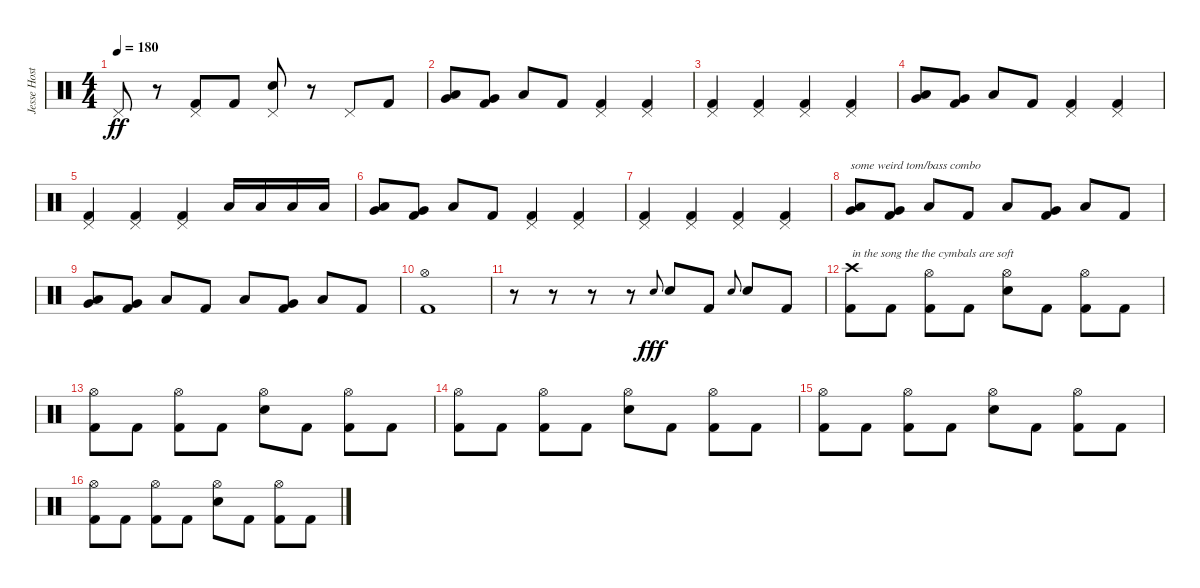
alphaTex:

\track ("Jesse Hostetler" "Jesse Host") {instrument percussion}
\staff {score}
\articulation defaults
\ts (4 4)
\tempo 180
\clef neutral
\ks c "Pedal Hi-Hat (hit)".8{dy ff}
r.8 ("Pedal Hi-Hat (hit)" "Kick (hit) 2").8 "Kick (hit) 2".8 ("Pedal Hi-Hat (hit)" "Electric Snare (hit)").8 r.8 "Pedal Hi-Hat (hit)".8 "Kick (hit) 2".8 |
("Very Low Tom (hit)" "Low Floor Tom (hit)").8 ("Very Low Tom (hit)" "Kick (hit) 2").8 "Low Floor Tom (hit)".8 "Kick (hit) 2".8 ("Pedal Hi-Hat (hit)" "Kick (hit) 2").4 ("Pedal Hi-Hat (hit)" "Kick (hit) 2").4 |
("Pedal Hi-Hat (hit)" "Kick (hit) 2").4 ("Pedal Hi-Hat (hit)" "Kick (hit) 2").4 ("Pedal Hi-Hat (hit)" "Kick (hit) 2").4 ("Pedal Hi-Hat (hit)" "Kick (hit) 2").4 |
("Very Low Tom (hit)" "Low Floor Tom (hit)").8 ("Very Low Tom (hit)" "Kick (hit) 2").8 "Low Floor Tom (hit)".8 "Kick (hit) 2".8 ("Pedal Hi-Hat (hit)" "Kick (hit) 2").4 ("Pedal Hi-Hat (hit)" "Kick (hit) 2").4 |
("Pedal Hi-Hat (hit)" "Kick (hit) 2").4 ("Pedal Hi-Hat (hit)" "Kick (hit) 2").4 ("Pedal Hi-Hat (hit)" "Kick (hit) 2").4 "Low Floor Tom (hit)".16 "Low Floor Tom (hit)".16 "Low Floor Tom (hit)".16 "Low Floor Tom (hit)".16 |
("Very Low Tom (hit)" "Low Floor Tom (hit)").8 ("Very Low Tom (hit)" "Kick (hit) 2").8 "Low Floor Tom (hit)".8 "Kick (hit) 2".8 ("Pedal Hi-Hat (hit)" "Kick (hit) 2").4 ("Pedal Hi-Hat (hit)" "Kick (hit) 2").4 |
("Pedal Hi-Hat (hit)" "Kick (hit) 2").4 ("Pedal Hi-Hat (hit)" "Kick (hit) 2").4 ("Pedal Hi-Hat (hit)" "Kick (hit) 2").4 ("Pedal Hi-Hat (hit)" "Kick (hit) 2").4 |
("Very Low Tom (hit)" "Low Floor Tom (hit)").8{txt "some weird tom/bass combo"} ("Very Low Tom (hit)" "Kick (hit) 2").8 "Low Floor Tom (hit)".8 "Kick (hit) 2".8 "Low Floor Tom (hit)".8 ("Very Low Tom (hit)" "Kick (hit) 2").8 "Low Floor Tom (hit)".8 "Kick (hit) 2".8 |
("Very Low Tom (hit)" "Low Floor Tom (hit)").8 ("Very Low Tom (hit)" "Kick (hit) 2").8 "Low Floor Tom (hit)".8 "Kick (hit) 2".8 "Low Floor Tom (hit)".8 ("Very Low Tom (hit)" "Kick (hit) 2").8 "Low Floor Tom (hit)".8 "Kick (hit) 2".8 |
("Hi-Hat (open)" "Kick (hit) 2").1 |
r.8 r.8 r.8 r.8 "Electric Snare (hit)".8{gr onbeat dy fff} "Electric Snare (hit)".8 "Kick (hit) 2".8 "Electric Snare (hit)".8{gr onbeat} "Electric Snare (hit)".8 "Kick (hit) 2".8 |
("Crash high (hit)" "Kick (hit) 2").8{txt "in the song the the cymbals are soft"} "Kick (hit) 2".8 ("Hi-Hat (open)" "Kick (hit) 2").8 "Kick (hit) 2".8 ("Hi-Hat (open)" "Electric Snare (hit)").8 "Kick (hit) 2".8 ("Hi-Hat (open)" "Kick (hit) 2").8 "Kick (hit) 2".8 |
("Hi-Hat (open)" "Kick (hit) 2").8 "Kick (hit) 2".8 ("Hi-Hat (open)" "Kick (hit) 2").8 "Kick (hit) 2".8 ("Hi-Hat (open)" "Electric Snare (hit)").8 "Kick (hit) 2".8 ("Hi-Hat (open)" "Kick (hit) 2").8 "Kick (hit) 2".8 |
("Hi-Hat (open)" "Kick (hit) 2").8 "Kick (hit) 2".8 ("Hi-Hat (open)" "Kick (hit) 2").8 "Kick (hit) 2".8 ("Hi-Hat (open)" "Electric Snare (hit)").8 "Kick (hit) 2".8 ("Hi-Hat (open)" "Kick (hit) 2").8 "Kick (hit) 2".8 |
("Hi-Hat (open)" "Kick (hit) 2").8 "Kick (hit) 2".8 ("Hi-Hat (open)" "Kick (hit) 2").8 "Kick (hit) 2".8 ("Hi-Hat (open)" "Electric Snare (hit)").8 "Kick (hit) 2".8 ("Hi-Hat (open)" "Kick (hit) 2").8 "Kick (hit) 2".8 |
("Hi-Hat (open)" "Kick (hit) 2").8 "Kick (hit) 2".8 ("Hi-Hat (open)" "Kick (hit) 2").8 "Kick (hit) 2".8 ("Hi-Hat (open)" "Electric Snare (hit)").8 "Kick (hit) 2".8 ("Hi-Hat (open)" "Kick (hit) 2").8 "Kick (hit) 2".8
